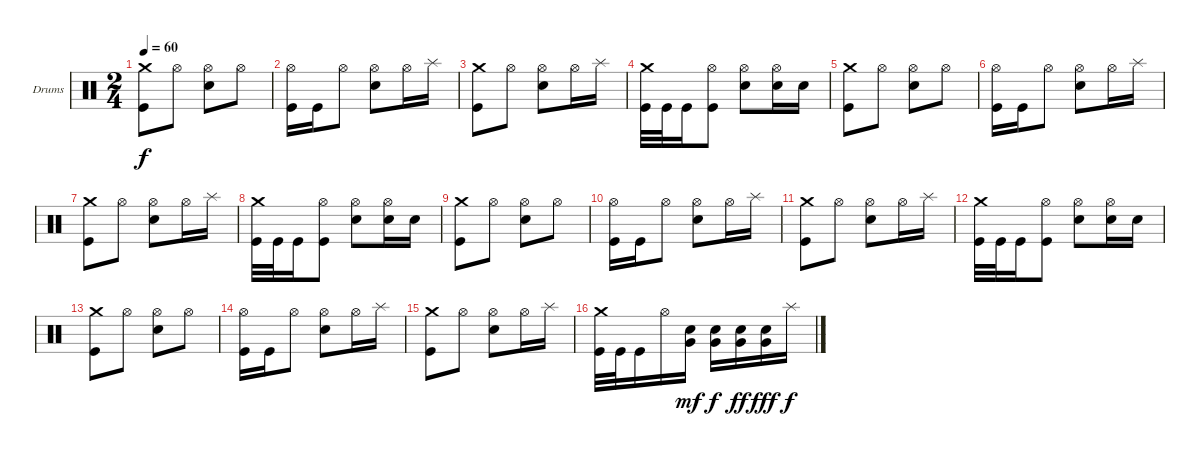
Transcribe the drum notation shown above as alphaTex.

\defaultSystemsLayout 4
\bracketExtendMode groupsimilarinstruments
\firstSystemTrackNameOrientation horizontal
\otherSystemsTrackNameOrientation horizontal
\track ("Drumkit" "Drums") {instrument percussion}
\staff {score}
\articulation defaults
\ts (2 4)
\tempo 60
\clef neutral
\ks aminor
("Crash medium (hit)" "Kick (hit)").8{dy f} "Hi-Hat (open)".8 ("Hi-Hat (open)" "Snare (hit) 2").8 "Hi-Hat (open)".8 |
("Hi-Hat (open)" "Kick (hit)").16 "Kick (hit)".16 "Hi-Hat (open)".8 ("Hi-Hat (open)" "Snare (hit) 2").8 "Hi-Hat (open)".16 "Splash (hit)".16 |
("Crash medium (hit)" "Kick (hit)").8 "Hi-Hat (open)".8 ("Hi-Hat (open)" "Snare (hit) 2").8 "Hi-Hat (open)".16 "Splash (hit)".16 |
("Crash medium (hit)" "Kick (hit)").32 "Kick (hit)".32 "Kick (hit)".16 ("Hi-Hat (open)" "Kick (hit)").8 ("Hi-Hat (open)" "Snare (hit) 2").8 ("Hi-Hat (open)" "Snare (hit) 2").16 "Snare (hit) 2".16 |
("Crash medium (hit)" "Kick (hit)").8 "Hi-Hat (open)".8 ("Hi-Hat (open)" "Snare (hit) 2").8 "Hi-Hat (open)".8 |
("Hi-Hat (open)" "Kick (hit)").16 "Kick (hit)".16 "Hi-Hat (open)".8 ("Hi-Hat (open)" "Snare (hit) 2").8 "Hi-Hat (open)".16 "Splash (hit)".16 |
("Crash medium (hit)" "Kick (hit)").8 "Hi-Hat (open)".8 ("Hi-Hat (open)" "Snare (hit) 2").8 "Hi-Hat (open)".16 "Splash (hit)".16 |
("Crash medium (hit)" "Kick (hit)").32 "Kick (hit)".32 "Kick (hit)".16 ("Hi-Hat (open)" "Kick (hit)").8 ("Hi-Hat (open)" "Snare (hit) 2").8 ("Hi-Hat (open)" "Snare (hit) 2").16 "Snare (hit) 2".16 |
("Crash medium (hit)" "Kick (hit)").8 "Hi-Hat (open)".8 ("Hi-Hat (open)" "Snare (hit) 2").8 "Hi-Hat (open)".8 |
("Hi-Hat (open)" "Kick (hit)").16 "Kick (hit)".16 "Hi-Hat (open)".8 ("Hi-Hat (open)" "Snare (hit) 2").8 "Hi-Hat (open)".16 "Splash (hit)".16 |
("Crash medium (hit)" "Kick (hit)").8 "Hi-Hat (open)".8 ("Hi-Hat (open)" "Snare (hit) 2").8 "Hi-Hat (open)".16 "Splash (hit)".16 |
("Crash medium (hit)" "Kick (hit)").32 "Kick (hit)".32 "Kick (hit)".16 ("Hi-Hat (open)" "Kick (hit)").8 ("Hi-Hat (open)" "Snare (hit) 2").8 ("Hi-Hat (open)" "Snare (hit) 2").16 "Snare (hit) 2".16 |
("Crash medium (hit)" "Kick (hit)").8 "Hi-Hat (open)".8 ("Hi-Hat (open)" "Snare (hit) 2").8 "Hi-Hat (open)".8 |
("Hi-Hat (open)" "Kick (hit)").16 "Kick (hit)".16 "Hi-Hat (open)".8 ("Hi-Hat (open)" "Snare (hit) 2").8 "Hi-Hat (open)".16 "Splash (hit)".16 |
("Crash medium (hit)" "Kick (hit)").8 "Hi-Hat (open)".8 ("Hi-Hat (open)" "Snare (hit) 2").8 "Hi-Hat (open)".16 "Splash (hit)".16 |
("Crash medium (hit)" "Kick (hit)").32 "Kick (hit)".32 "Kick (hit)".16 "Hi-Hat (open)".16 ("Snare (hit) 2" "Very Low Tom (hit)").16{dy mf} ("Snare (hit) 2" "Very Low Tom (hit)").16{dy f} ("Snare (hit) 2" "Very Low Tom (hit)").16{dy ff} ("Snare (hit) 2" "Very Low Tom (hit)").16{dy fff} "Splash (hit)".16{dy f}
